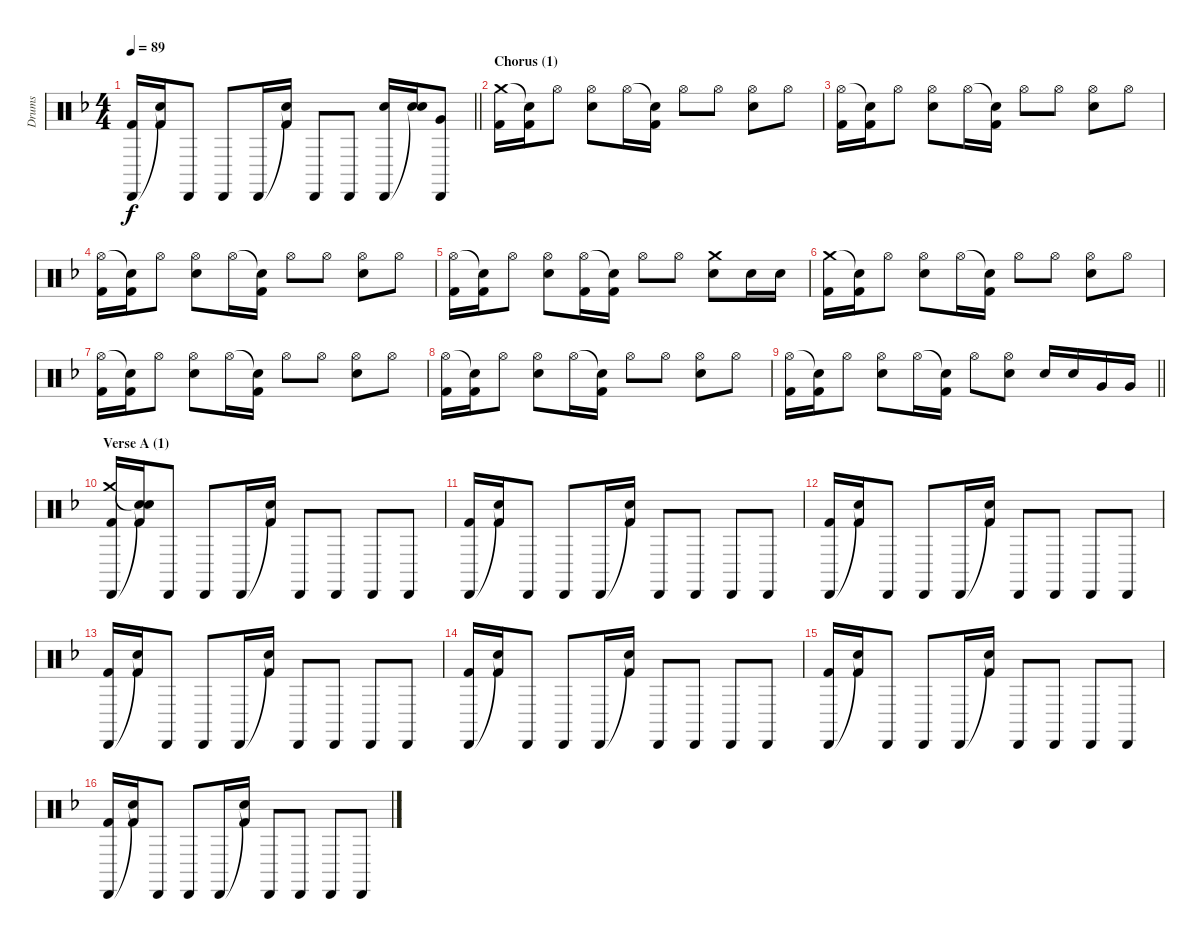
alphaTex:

\track ("Drums" "Drums") {instrument percussion}
\staff {score}
\articulation defaults
\ts (4 4)
\tempo 89
\clef neutral
\barLineRight lightlight
\ks dminor
("Cabasa (hit)" "Kick (hit) 2").16{dy f} ("Snare (hit)"{t} "Kick (hit) 2").16 "Cabasa (hit)".8 "Cabasa (hit)".8 "Cabasa (hit)".16 ("Snare (hit)"{t} "Kick (hit) 2").16 "Cabasa (hit)".8 "Cabasa (hit)".8 ("Cabasa (hit)" "Electric Snare (hit)").16 ("Snare (hit)"{t} "Electric Snare (hit)").16 ("Cabasa (hit)" "Very Low Tom (hit)").8 |
\section ("" "Chorus (1)")
("Crash medium (hit)" "Kick (hit) 2").16 ("Snare (hit)"{t} "Kick (hit) 2").16 "Hi-Hat (open)".8 ("Hi-Hat (open)" "Electric Snare (hit)").8 "Hi-Hat (open)".16 ("Snare (hit)"{t} "Kick (hit) 2").16 "Hi-Hat (open)".8 "Hi-Hat (open)".8 ("Hi-Hat (open)" "Electric Snare (hit)").8 "Hi-Hat (open)".8 |
("Hi-Hat (open)" "Kick (hit) 2").16 ("Snare (hit)"{t} "Kick (hit) 2").16 "Hi-Hat (open)".8 ("Hi-Hat (open)" "Electric Snare (hit)").8 "Hi-Hat (open)".16 ("Snare (hit)"{t} "Kick (hit) 2").16 "Hi-Hat (open)".8 "Hi-Hat (open)".8 ("Hi-Hat (open)" "Electric Snare (hit)").8 "Hi-Hat (open)".8 |
("Hi-Hat (open)" "Kick (hit) 2").16 ("Snare (hit)"{t} "Kick (hit) 2").16 "Hi-Hat (open)".8 ("Hi-Hat (open)" "Electric Snare (hit)").8 "Hi-Hat (open)".16 ("Snare (hit)"{t} "Kick (hit) 2").16 "Hi-Hat (open)".8 "Hi-Hat (open)".8 ("Hi-Hat (open)" "Electric Snare (hit)").8 "Hi-Hat (open)".8 |
("Hi-Hat (open)" "Kick (hit) 2").16 ("Snare (hit)"{t} "Kick (hit) 2").16 "Hi-Hat (open)".8 ("Hi-Hat (open)" "Electric Snare (hit)").8 ("Hi-Hat (open)" "Kick (hit) 2").16 ("Snare (hit)"{t} "Kick (hit) 2").16 "Hi-Hat (open)".8 "Hi-Hat (open)".8 ("Crash medium (hit)" "Electric Snare (hit)").8 "Electric Snare (hit)".16 "Electric Snare (hit)".16 |
("Crash medium (hit)" "Kick (hit) 2").16 ("Snare (hit)"{t} "Kick (hit) 2").16 "Hi-Hat (open)".8 ("Hi-Hat (open)" "Electric Snare (hit)").8 "Hi-Hat (open)".16 ("Snare (hit)"{t} "Kick (hit) 2").16 "Hi-Hat (open)".8 "Hi-Hat (open)".8 ("Hi-Hat (open)" "Electric Snare (hit)").8 "Hi-Hat (open)".8 |
("Hi-Hat (open)" "Kick (hit) 2").16 ("Snare (hit)"{t} "Kick (hit) 2").16 "Hi-Hat (open)".8 ("Hi-Hat (open)" "Electric Snare (hit)").8 "Hi-Hat (open)".16 ("Snare (hit)"{t} "Kick (hit) 2").16 "Hi-Hat (open)".8 "Hi-Hat (open)".8 ("Hi-Hat (open)" "Electric Snare (hit)").8 "Hi-Hat (open)".8 |
("Hi-Hat (open)" "Kick (hit) 2").16 ("Snare (hit)"{t} "Kick (hit) 2").16 "Hi-Hat (open)".8 ("Hi-Hat (open)" "Electric Snare (hit)").8 "Hi-Hat (open)".16 ("Snare (hit)"{t} "Kick (hit) 2").16 "Hi-Hat (open)".8 "Hi-Hat (open)".8 ("Hi-Hat (open)" "Electric Snare (hit)").8 "Hi-Hat (open)".8 |
\barLineRight lightlight
("Hi-Hat (open)" "Kick (hit) 2").16 ("Snare (hit)"{t} "Kick (hit) 2").16 "Hi-Hat (open)".8 ("Hi-Hat (open)" "Electric Snare (hit)").8 "Hi-Hat (open)".16 ("Snare (hit)"{t} "Kick (hit) 2").16 "Hi-Hat (open)".8 ("Hi-Hat (open)" "Electric Snare (hit)").8 "Electric Snare (hit)".16 "Electric Snare (hit)".16 "Very Low Tom (hit)".16 "Very Low Tom (hit)".16 |
\section ("" "Verse A (1)")
("Crash medium (hit)" "Cabasa (hit)" "Kick (hit) 2").16 ("Snare (hit)"{t} "Snare (hit)"{t} "Kick (hit) 2").16 "Cabasa (hit)".8 "Cabasa (hit)".8 "Cabasa (hit)".16 ("Snare (hit)"{t} "Kick (hit) 2").16 "Cabasa (hit)".8 "Cabasa (hit)".8 "Cabasa (hit)".8 "Cabasa (hit)".8 |
("Cabasa (hit)" "Kick (hit) 2").16 ("Snare (hit)"{t} "Kick (hit) 2").16 "Cabasa (hit)".8 "Cabasa (hit)".8 "Cabasa (hit)".16 ("Snare (hit)"{t} "Kick (hit) 2").16 "Cabasa (hit)".8 "Cabasa (hit)".8 "Cabasa (hit)".8 "Cabasa (hit)".8 |
("Cabasa (hit)" "Kick (hit) 2").16 ("Snare (hit)"{t} "Kick (hit) 2").16 "Cabasa (hit)".8 "Cabasa (hit)".8 "Cabasa (hit)".16 ("Snare (hit)"{t} "Kick (hit) 2").16 "Cabasa (hit)".8 "Cabasa (hit)".8 "Cabasa (hit)".8 "Cabasa (hit)".8 |
("Cabasa (hit)" "Kick (hit) 2").16 ("Snare (hit)"{t} "Kick (hit) 2").16 "Cabasa (hit)".8 "Cabasa (hit)".8 "Cabasa (hit)".16 ("Snare (hit)"{t} "Kick (hit) 2").16 "Cabasa (hit)".8 "Cabasa (hit)".8 "Cabasa (hit)".8 "Cabasa (hit)".8 |
("Cabasa (hit)" "Kick (hit) 2").16 ("Snare (hit)"{t} "Kick (hit) 2").16 "Cabasa (hit)".8 "Cabasa (hit)".8 "Cabasa (hit)".16 ("Snare (hit)"{t} "Kick (hit) 2").16 "Cabasa (hit)".8 "Cabasa (hit)".8 "Cabasa (hit)".8 "Cabasa (hit)".8 |
("Cabasa (hit)" "Kick (hit) 2").16 ("Snare (hit)"{t} "Kick (hit) 2").16 "Cabasa (hit)".8 "Cabasa (hit)".8 "Cabasa (hit)".16 ("Snare (hit)"{t} "Kick (hit) 2").16 "Cabasa (hit)".8 "Cabasa (hit)".8 "Cabasa (hit)".8 "Cabasa (hit)".8 |
("Cabasa (hit)" "Kick (hit) 2").16 ("Snare (hit)"{t} "Kick (hit) 2").16 "Cabasa (hit)".8 "Cabasa (hit)".8 "Cabasa (hit)".16 ("Snare (hit)"{t} "Kick (hit) 2").16 "Cabasa (hit)".8 "Cabasa (hit)".8 "Cabasa (hit)".8 "Cabasa (hit)".8
